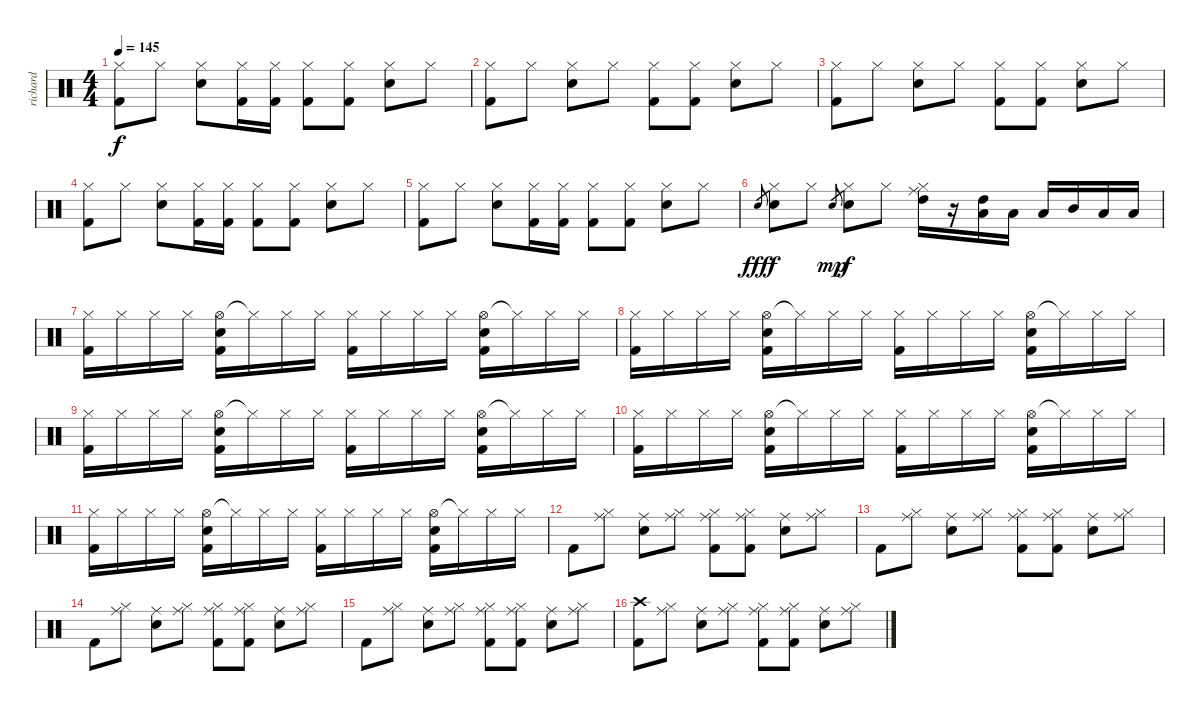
\track ("richard" "richard") {instrument percussion}
\staff {score}
\articulation defaults
\ts (4 4)
\tempo 145
\clef neutral
\ks c
("Kick (hit) 2" "Hi-Hat (closed)").8{dy f} "Hi-Hat (closed)".8 ("Hi-Hat (closed)" "Snare (hit) 2").8 ("Hi-Hat (closed)" "Kick (hit) 2").16 ("Hi-Hat (closed)" "Kick (hit) 2").16 ("Hi-Hat (closed)" "Kick (hit) 2").8 ("Hi-Hat (closed)" "Kick (hit) 2").8 ("Hi-Hat (closed)" "Snare (hit) 2").8 "Hi-Hat (closed)".8 |
("Kick (hit) 2" "Hi-Hat (closed)").8 "Hi-Hat (closed)".8 ("Hi-Hat (closed)" "Snare (hit) 2").8 "Hi-Hat (closed)".8 ("Hi-Hat (closed)" "Kick (hit) 2").8 ("Hi-Hat (closed)" "Kick (hit) 2").8 ("Hi-Hat (closed)" "Snare (hit) 2").8 "Hi-Hat (closed)".8 |
("Kick (hit) 2" "Hi-Hat (closed)").8 "Hi-Hat (closed)".8 ("Hi-Hat (closed)" "Snare (hit) 2").8 "Hi-Hat (closed)".8 ("Hi-Hat (closed)" "Kick (hit) 2").8 ("Hi-Hat (closed)" "Kick (hit) 2").8 ("Hi-Hat (closed)" "Snare (hit) 2").8 "Hi-Hat (closed)".8 |
("Kick (hit) 2" "Hi-Hat (closed)").8 "Hi-Hat (closed)".8 ("Hi-Hat (closed)" "Snare (hit) 2").8 ("Hi-Hat (closed)" "Kick (hit) 2").16 ("Hi-Hat (closed)" "Kick (hit) 2").16 ("Hi-Hat (closed)" "Kick (hit) 2").8 ("Hi-Hat (closed)" "Kick (hit) 2").8 ("Hi-Hat (closed)" "Snare (hit) 2").8 "Hi-Hat (closed)".8 |
("Kick (hit) 2" "Hi-Hat (closed)").8 "Hi-Hat (closed)".8 ("Hi-Hat (closed)" "Snare (hit) 2").8 ("Hi-Hat (closed)" "Kick (hit) 2").16 ("Hi-Hat (closed)" "Kick (hit) 2").16 ("Hi-Hat (closed)" "Kick (hit) 2").8 ("Hi-Hat (closed)" "Kick (hit) 2").8 ("Hi-Hat (closed)" "Snare (hit) 2").8 "Hi-Hat (closed)".8 |
"Snare (hit) 2".8{gr dy fff} ("Hi-Hat (closed)" "Snare (hit) 2").8{dy f} "Hi-Hat (closed)".8 "Snare (hit) 2".8{gr dy mp} ("Hi-Hat (closed)" "Snare (hit) 2").8{dy f} "Hi-Hat (closed)".8 ("Hi-Hat (closed)" "Ride (middle)" "High Tom (hit)").16 r.16 ("High Tom (hit)" "Low Tom (hit)").16 "Low Tom (hit)".16 "Low Tom (hit)".16 "Mid Tom (hit)".16 "Low Floor Tom (hit)".16 "Low Floor Tom (hit)".16 |
("Hi-Hat (closed)" "Kick (hit) 2").16 "Hi-Hat (closed)".16 "Hi-Hat (closed)".16 "Hi-Hat (closed)".16 ("Hi-Hat (open)" "Kick (hit) 2" "Snare (hit) 2").16 "Hi-Hat (closed)"{t}.16 "Hi-Hat (closed)".16 "Hi-Hat (closed)".16 ("Hi-Hat (closed)" "Kick (hit) 2").16 "Hi-Hat (closed)".16 "Hi-Hat (closed)".16 "Hi-Hat (closed)".16 ("Hi-Hat (open)" "Kick (hit) 2" "Snare (hit) 2").16 "Hi-Hat (closed)"{t}.16 "Hi-Hat (closed)".16 "Hi-Hat (closed)".16 |
("Hi-Hat (closed)" "Kick (hit) 2").16 "Hi-Hat (closed)".16 "Hi-Hat (closed)".16 "Hi-Hat (closed)".16 ("Hi-Hat (open)" "Kick (hit) 2" "Snare (hit) 2").16 "Hi-Hat (closed)"{t}.16 "Hi-Hat (closed)".16 "Hi-Hat (closed)".16 ("Hi-Hat (closed)" "Kick (hit) 2").16 "Hi-Hat (closed)".16 "Hi-Hat (closed)".16 "Hi-Hat (closed)".16 ("Hi-Hat (open)" "Kick (hit) 2" "Snare (hit) 2").16 "Hi-Hat (closed)"{t}.16 "Hi-Hat (closed)".16 "Hi-Hat (closed)".16 |
("Hi-Hat (closed)" "Kick (hit) 2").16 "Hi-Hat (closed)".16 "Hi-Hat (closed)".16 "Hi-Hat (closed)".16 ("Hi-Hat (open)" "Kick (hit) 2" "Snare (hit) 2").16 "Hi-Hat (closed)"{t}.16 "Hi-Hat (closed)".16 "Hi-Hat (closed)".16 ("Hi-Hat (closed)" "Kick (hit) 2").16 "Hi-Hat (closed)".16 "Hi-Hat (closed)".16 "Hi-Hat (closed)".16 ("Hi-Hat (open)" "Kick (hit) 2" "Snare (hit) 2").16 "Hi-Hat (closed)"{t}.16 "Hi-Hat (closed)".16 "Hi-Hat (closed)".16 |
("Hi-Hat (closed)" "Kick (hit) 2").16 "Hi-Hat (closed)".16 "Hi-Hat (closed)".16 "Hi-Hat (closed)".16 ("Hi-Hat (open)" "Kick (hit) 2" "Snare (hit) 2").16 "Hi-Hat (closed)"{t}.16 "Hi-Hat (closed)".16 "Hi-Hat (closed)".16 ("Hi-Hat (closed)" "Kick (hit) 2").16 "Hi-Hat (closed)".16 "Hi-Hat (closed)".16 "Hi-Hat (closed)".16 ("Hi-Hat (open)" "Kick (hit) 2" "Snare (hit) 2").16 "Hi-Hat (closed)"{t}.16 "Hi-Hat (closed)".16 "Hi-Hat (closed)".16 |
("Hi-Hat (closed)" "Kick (hit) 2").16 "Hi-Hat (closed)".16 "Hi-Hat (closed)".16 "Hi-Hat (closed)".16 ("Hi-Hat (open)" "Kick (hit) 2" "Snare (hit) 2").16 "Hi-Hat (closed)"{t}.16 "Hi-Hat (closed)".16 "Hi-Hat (closed)".16 ("Hi-Hat (closed)" "Kick (hit) 2").16 "Hi-Hat (closed)".16 "Hi-Hat (closed)".16 "Hi-Hat (closed)".16 ("Hi-Hat (open)" "Kick (hit) 2" "Snare (hit) 2").16 "Hi-Hat (closed)"{t}.16 "Hi-Hat (closed)".16 "Hi-Hat (closed)".16 |
"Kick (hit) 2".8 ("Ride (middle)" "Hi-Hat (closed)").8 ("Ride (middle)" "Snare (hit) 2").8 ("Ride (middle)" "Hi-Hat (closed)").8 ("Ride (middle)" "Kick (hit) 2" "Hi-Hat (closed)").8 ("Ride (middle)" "Kick (hit) 2" "Hi-Hat (closed)").8 ("Ride (middle)" "Snare (hit) 2").8 ("Ride (middle)" "Hi-Hat (closed)").8 |
"Kick (hit) 2".8 ("Ride (middle)" "Hi-Hat (closed)").8 ("Ride (middle)" "Snare (hit) 2").8 ("Ride (middle)" "Hi-Hat (closed)").8 ("Ride (middle)" "Kick (hit) 2" "Hi-Hat (closed)").8 ("Ride (middle)" "Kick (hit) 2" "Hi-Hat (closed)").8 ("Ride (middle)" "Snare (hit) 2").8 ("Ride (middle)" "Hi-Hat (closed)").8 |
"Kick (hit) 2".8 ("Ride (middle)" "Hi-Hat (closed)").8 ("Ride (middle)" "Snare (hit) 2").8 ("Ride (middle)" "Hi-Hat (closed)").8 ("Ride (middle)" "Kick (hit) 2" "Hi-Hat (closed)").8 ("Ride (middle)" "Kick (hit) 2" "Hi-Hat (closed)").8 ("Ride (middle)" "Snare (hit) 2").8 ("Ride (middle)" "Hi-Hat (closed)").8 |
"Kick (hit) 2".8 ("Ride (middle)" "Hi-Hat (closed)").8 ("Ride (middle)" "Snare (hit) 2").8 ("Ride (middle)" "Hi-Hat (closed)").8 ("Ride (middle)" "Kick (hit) 2" "Hi-Hat (closed)").8 ("Ride (middle)" "Kick (hit) 2" "Hi-Hat (closed)").8 ("Ride (middle)" "Snare (hit) 2").8 ("Ride (middle)" "Hi-Hat (closed)").8 |
("Kick (hit) 2" "Crash high (hit)").8 ("Ride (middle)" "Hi-Hat (closed)").8 ("Ride (middle)" "Snare (hit) 2").8 ("Ride (middle)" "Hi-Hat (closed)").8 ("Ride (middle)" "Kick (hit) 2" "Hi-Hat (closed)").8 ("Ride (middle)" "Kick (hit) 2" "Hi-Hat (closed)").8 ("Ride (middle)" "Snare (hit) 2").8 ("Ride (middle)" "Hi-Hat (closed)").8
